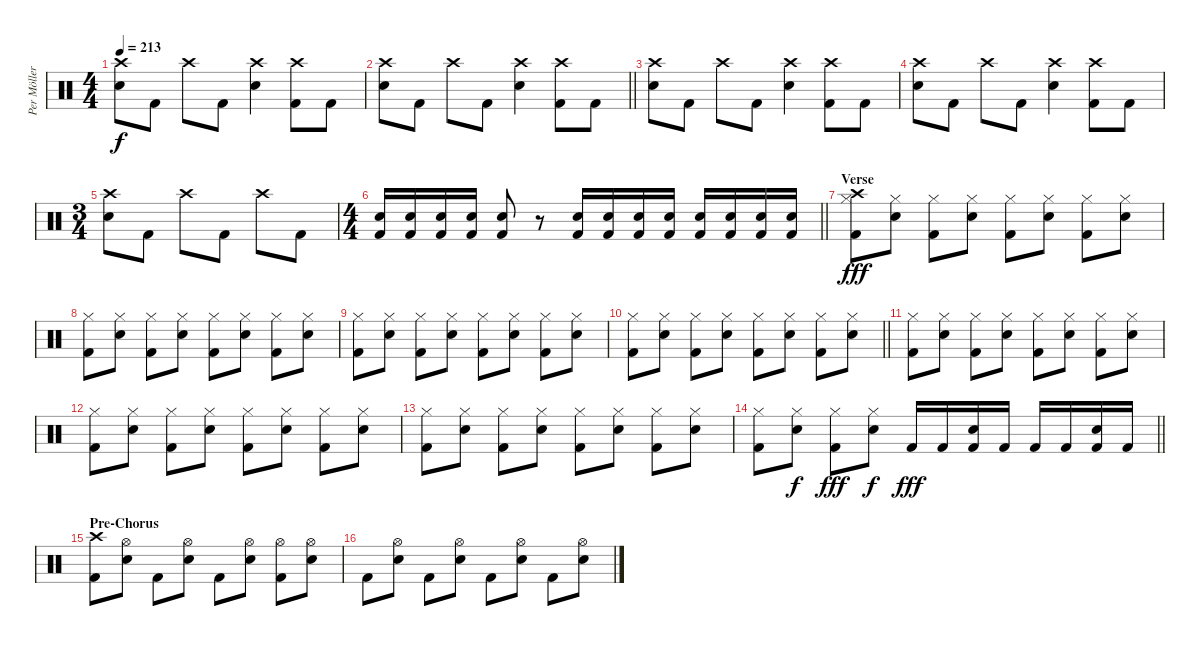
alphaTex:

\track ("Per Möller Jensen" "Per Möller") {instrument percussion}
\staff {score}
\articulation defaults
\ts (4 4)
\tempo 213
\clef neutral
\ks c
("Crash high (hit)" "Electric Snare (hit)").8{dy f} "Kick (hit) 2".8 "Crash high (hit)".8 "Kick (hit) 2".8 ("Crash high (hit)" "Electric Snare (hit)").4 ("Crash high (hit)" "Kick (hit) 2").8 "Kick (hit) 2".8 |
\barLineRight lightlight
("Crash high (hit)" "Electric Snare (hit)").8 "Kick (hit) 2".8 "Crash high (hit)".8 "Kick (hit) 2".8 ("Crash high (hit)" "Electric Snare (hit)").4 ("Crash high (hit)" "Kick (hit) 2").8 "Kick (hit) 2".8 |
("Crash high (hit)" "Electric Snare (hit)").8 "Kick (hit) 2".8 "Crash high (hit)".8 "Kick (hit) 2".8 ("Crash high (hit)" "Electric Snare (hit)").4 ("Crash high (hit)" "Kick (hit) 2").8 "Kick (hit) 2".8 |
("Crash high (hit)" "Electric Snare (hit)").8 "Kick (hit) 2".8 "Crash high (hit)".8 "Kick (hit) 2".8 ("Crash high (hit)" "Electric Snare (hit)").4 ("Crash high (hit)" "Kick (hit) 2").8 "Kick (hit) 2".8 |
\ts (3 4)
("Crash high (hit)" "Electric Snare (hit)").8 "Kick (hit) 2".8 "Crash high (hit)".8 "Kick (hit) 2".8 "Crash high (hit)".8 "Kick (hit) 2".8 |
\ts (4 4)
\barLineRight lightlight
("Electric Snare (hit)" "Kick (hit) 2").16 ("Electric Snare (hit)" "Kick (hit) 2").16 ("Electric Snare (hit)" "Kick (hit) 2").16 ("Electric Snare (hit)" "Kick (hit) 2").16 ("Electric Snare (hit)" "Kick (hit) 2").8 r.8 ("Electric Snare (hit)" "Kick (hit) 2").16 ("Electric Snare (hit)" "Kick (hit) 2").16 ("Electric Snare (hit)" "Kick (hit) 2").16 ("Electric Snare (hit)" "Kick (hit) 2").16 ("Electric Snare (hit)" "Kick (hit) 2").16 ("Electric Snare (hit)" "Kick (hit) 2").16 ("Electric Snare (hit)" "Kick (hit) 2").16 ("Electric Snare (hit)" "Kick (hit) 2").16 |
\section ("" "Verse")
("Crash high (hit)" "Hi-Hat (closed)" "Kick (hit) 2").8{dy fff} ("Hi-Hat (closed)" "Electric Snare (hit)").8 ("Hi-Hat (closed)" "Kick (hit) 2").8 ("Hi-Hat (closed)" "Electric Snare (hit)").8 ("Hi-Hat (closed)" "Kick (hit) 2").8 ("Hi-Hat (closed)" "Electric Snare (hit)").8 ("Hi-Hat (closed)" "Kick (hit) 2").8 ("Hi-Hat (closed)" "Electric Snare (hit)").8 |
("Hi-Hat (closed)" "Kick (hit) 2").8 ("Hi-Hat (closed)" "Electric Snare (hit)").8 ("Hi-Hat (closed)" "Kick (hit) 2").8 ("Hi-Hat (closed)" "Electric Snare (hit)").8 ("Hi-Hat (closed)" "Kick (hit) 2").8 ("Hi-Hat (closed)" "Electric Snare (hit)").8 ("Hi-Hat (closed)" "Kick (hit) 2").8 ("Hi-Hat (closed)" "Electric Snare (hit)").8 |
("Hi-Hat (closed)" "Kick (hit) 2").8 ("Hi-Hat (closed)" "Electric Snare (hit)").8 ("Hi-Hat (closed)" "Kick (hit) 2").8 ("Hi-Hat (closed)" "Electric Snare (hit)").8 ("Hi-Hat (closed)" "Kick (hit) 2").8 ("Hi-Hat (closed)" "Electric Snare (hit)").8 ("Hi-Hat (closed)" "Kick (hit) 2").8 ("Hi-Hat (closed)" "Electric Snare (hit)").8 |
\barLineRight lightlight
("Hi-Hat (closed)" "Kick (hit) 2").8 ("Hi-Hat (closed)" "Electric Snare (hit)").8 ("Hi-Hat (closed)" "Kick (hit) 2").8 ("Hi-Hat (closed)" "Electric Snare (hit)").8 ("Hi-Hat (closed)" "Kick (hit) 2").8 ("Hi-Hat (closed)" "Electric Snare (hit)").8 ("Hi-Hat (closed)" "Kick (hit) 2").8 ("Hi-Hat (closed)" "Electric Snare (hit)").8 |
\section ("" "")
("Hi-Hat (closed)" "Kick (hit) 2").8 ("Hi-Hat (closed)" "Electric Snare (hit)").8 ("Hi-Hat (closed)" "Kick (hit) 2").8 ("Hi-Hat (closed)" "Electric Snare (hit)").8 ("Hi-Hat (closed)" "Kick (hit) 2").8 ("Hi-Hat (closed)" "Electric Snare (hit)").8 ("Hi-Hat (closed)" "Kick (hit) 2").8 ("Hi-Hat (closed)" "Electric Snare (hit)").8 |
("Hi-Hat (closed)" "Kick (hit) 2").8 ("Hi-Hat (closed)" "Electric Snare (hit)").8 ("Hi-Hat (closed)" "Kick (hit) 2").8 ("Hi-Hat (closed)" "Electric Snare (hit)").8 ("Hi-Hat (closed)" "Kick (hit) 2").8 ("Hi-Hat (closed)" "Electric Snare (hit)").8 ("Hi-Hat (closed)" "Kick (hit) 2").8 ("Hi-Hat (closed)" "Electric Snare (hit)").8 |
("Hi-Hat (closed)" "Kick (hit) 2").8 ("Hi-Hat (closed)" "Electric Snare (hit)").8 ("Hi-Hat (closed)" "Kick (hit) 2").8 ("Hi-Hat (closed)" "Electric Snare (hit)").8 ("Hi-Hat (closed)" "Kick (hit) 2").8 ("Hi-Hat (closed)" "Electric Snare (hit)").8 ("Hi-Hat (closed)" "Kick (hit) 2").8 ("Hi-Hat (closed)" "Electric Snare (hit)").8 |
\barLineRight lightlight
("Hi-Hat (closed)" "Kick (hit) 2").8 ("Hi-Hat (closed)" "Electric Snare (hit)").8{dy f} ("Hi-Hat (closed)" "Kick (hit) 2").8{dy fff} ("Hi-Hat (closed)" "Electric Snare (hit)").8{dy f} "Kick (hit) 2".16{dy fff} "Kick (hit) 2".16 ("Electric Snare (hit)" "Kick (hit) 2").16 "Kick (hit) 2".16 "Kick (hit) 2".16 "Kick (hit) 2".16 ("Electric Snare (hit)" "Kick (hit) 2").16 "Kick (hit) 2".16 |
\section ("" "Pre-Chorus")
("Crash high (hit)" "Kick (hit) 2").8 ("Hi-Hat (open)" "Electric Snare (hit)").8 "Kick (hit) 2".8 ("Hi-Hat (open)" "Electric Snare (hit)").8 "Kick (hit) 2".8 ("Hi-Hat (open)" "Electric Snare (hit)").8 ("Hi-Hat (open)" "Kick (hit) 2").8 ("Hi-Hat (open)" "Electric Snare (hit)").8 |
"Kick (hit) 2".8 ("Hi-Hat (open)" "Electric Snare (hit)").8 "Kick (hit) 2".8 ("Hi-Hat (open)" "Electric Snare (hit)").8 "Kick (hit) 2".8 ("Hi-Hat (open)" "Electric Snare (hit)").8 "Kick (hit) 2".8 ("Hi-Hat (open)" "Electric Snare (hit)").8
